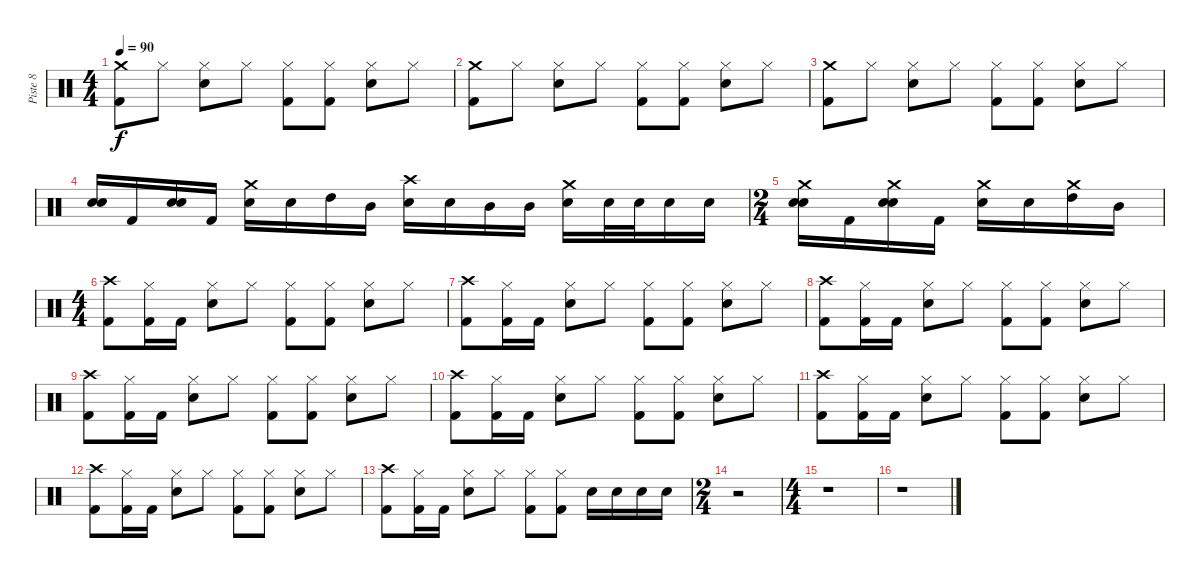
\track ("Piste 8" "Piste 8") {instrument percussion}
\staff {score}
\articulation defaults
\ts (4 4)
\tempo 90
\clef neutral
\ks c
("Crash medium (hit)" "Kick (hit) 2").8{dy f} "Hi-Hat (closed)".8 ("Hi-Hat (closed)" "Snare (hit) 2").8 "Hi-Hat (closed)".8 ("Hi-Hat (closed)" "Kick (hit) 2").8 ("Hi-Hat (closed)" "Kick (hit) 2").8 ("Hi-Hat (closed)" "Snare (hit) 2").8 "Hi-Hat (closed)".8 |
("Crash medium (hit)" "Kick (hit) 2").8 "Hi-Hat (closed)".8 ("Hi-Hat (closed)" "Snare (hit) 2").8 "Hi-Hat (closed)".8 ("Hi-Hat (closed)" "Kick (hit) 2").8 ("Hi-Hat (closed)" "Kick (hit) 2").8 ("Hi-Hat (closed)" "Snare (hit) 2").8 "Hi-Hat (closed)".8 |
("Crash medium (hit)" "Kick (hit) 2").8 "Hi-Hat (closed)".8 ("Hi-Hat (closed)" "Snare (hit) 2").8 "Hi-Hat (closed)".8 ("Hi-Hat (closed)" "Kick (hit) 2").8 ("Hi-Hat (closed)" "Kick (hit) 2").8 ("Hi-Hat (closed)" "Snare (hit) 2").8 "Hi-Hat (closed)".8 |
("Snare (hit) 2" "Snare (hit) 2").16{bd 60} "Kick (hit) 2".16 ("Snare (hit) 2" "Snare (hit) 2").16{bd 60} "Kick (hit) 2".16 ("Crash medium (hit)" "Snare (hit) 2").16 "Snare (hit) 2".16 "High Tom (hit)".16 "Mid Tom (hit)".16 ("Crash high (hit)" "Snare (hit) 2").16 "Snare (hit) 2".16 "Mid Tom (hit)".16 "Mid Tom (hit)".16 ("Crash medium (hit)" "Snare (hit) 2").16 "Snare (hit) 2".32 "Snare (hit) 2".32 "Snare (hit) 2".16 "Snare (hit) 2".16 |
\ts (2 4)
("Crash medium (hit)" "Snare (hit) 2" "Snare (hit) 2").16{bd 60} "Kick (hit) 2".16 ("Crash medium (hit)" "Snare (hit) 2" "Snare (hit) 2").16{bd 60} "Kick (hit) 2".16 ("Crash medium (hit)" "Snare (hit) 2").16 "Snare (hit) 2".16 ("Crash medium (hit)" "High Tom (hit)").16 "Mid Tom (hit)".16 |
\ts (4 4)
("Crash high (hit)" "Kick (hit) 2").8 ("Hi-Hat (closed)" "Kick (hit) 2").16 "Kick (hit) 2".16 ("Hi-Hat (closed)" "Snare (hit) 2").8 "Hi-Hat (closed)".8 ("Hi-Hat (closed)" "Kick (hit) 2").8 ("Hi-Hat (closed)" "Kick (hit) 2").8 ("Hi-Hat (closed)" "Snare (hit) 2").8 "Hi-Hat (closed)".8 |
("Crash high (hit)" "Kick (hit) 2").8 ("Hi-Hat (closed)" "Kick (hit) 2").16 "Kick (hit) 2".16 ("Hi-Hat (closed)" "Snare (hit) 2").8 "Hi-Hat (closed)".8 ("Hi-Hat (closed)" "Kick (hit) 2").8 ("Hi-Hat (closed)" "Kick (hit) 2").8 ("Hi-Hat (closed)" "Snare (hit) 2").8 "Hi-Hat (closed)".8 |
("Crash high (hit)" "Kick (hit) 2").8 ("Hi-Hat (closed)" "Kick (hit) 2").16 "Kick (hit) 2".16 ("Hi-Hat (closed)" "Snare (hit) 2").8 "Hi-Hat (closed)".8 ("Hi-Hat (closed)" "Kick (hit) 2").8 ("Hi-Hat (closed)" "Kick (hit) 2").8 ("Hi-Hat (closed)" "Snare (hit) 2").8 "Hi-Hat (closed)".8 |
("Crash high (hit)" "Kick (hit) 2").8 ("Hi-Hat (closed)" "Kick (hit) 2").16 "Kick (hit) 2".16 ("Hi-Hat (closed)" "Snare (hit) 2").8 "Hi-Hat (closed)".8 ("Hi-Hat (closed)" "Kick (hit) 2").8 ("Hi-Hat (closed)" "Kick (hit) 2").8 ("Hi-Hat (closed)" "Snare (hit) 2").8 "Hi-Hat (closed)".8 |
("Crash high (hit)" "Kick (hit) 2").8 ("Hi-Hat (closed)" "Kick (hit) 2").16 "Kick (hit) 2".16 ("Hi-Hat (closed)" "Snare (hit) 2").8 "Hi-Hat (closed)".8 ("Hi-Hat (closed)" "Kick (hit) 2").8 ("Hi-Hat (closed)" "Kick (hit) 2").8 ("Hi-Hat (closed)" "Snare (hit) 2").8 "Hi-Hat (closed)".8 |
("Crash high (hit)" "Kick (hit) 2").8 ("Hi-Hat (closed)" "Kick (hit) 2").16 "Kick (hit) 2".16 ("Hi-Hat (closed)" "Snare (hit) 2").8 "Hi-Hat (closed)".8 ("Hi-Hat (closed)" "Kick (hit) 2").8 ("Hi-Hat (closed)" "Kick (hit) 2").8 ("Hi-Hat (closed)" "Snare (hit) 2").8 "Hi-Hat (closed)".8 |
("Crash high (hit)" "Kick (hit) 2").8 ("Hi-Hat (closed)" "Kick (hit) 2").16 "Kick (hit) 2".16 ("Hi-Hat (closed)" "Snare (hit) 2").8 "Hi-Hat (closed)".8 ("Hi-Hat (closed)" "Kick (hit) 2").8 ("Hi-Hat (closed)" "Kick (hit) 2").8 ("Hi-Hat (closed)" "Snare (hit) 2").8 "Hi-Hat (closed)".8 |
("Crash high (hit)" "Kick (hit) 2").8 ("Hi-Hat (closed)" "Kick (hit) 2").16 "Kick (hit) 2".16 ("Hi-Hat (closed)" "Snare (hit) 2").8 "Hi-Hat (closed)".8 ("Hi-Hat (closed)" "Kick (hit) 2").8 ("Hi-Hat (closed)" "Kick (hit) 2").8 "Snare (hit) 2".16 "Snare (hit) 2".16 "Snare (hit) 2".16 "Snare (hit) 2".16 |
\ts (2 4)
r.2 |
\ts (4 4)
r.1 |
r.1
